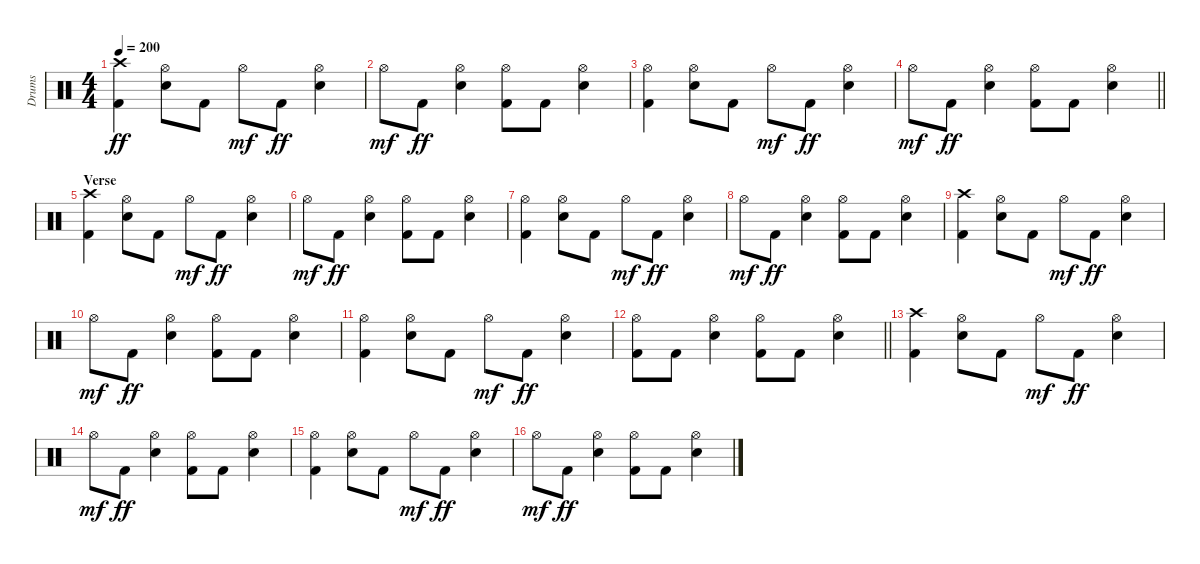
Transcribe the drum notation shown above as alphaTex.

\track ("Drums" "Drums") {instrument percussion}
\staff {score}
\articulation defaults
\ts (4 4)
\tempo 200
\clef neutral
\ks c
("Crash high (hit)" "Kick (hit) 2").4{dy ff} ("Hi-Hat (open)" "Electric Snare (hit)").8 "Kick (hit) 2".8 "Hi-Hat (open)".8{dy mf} "Kick (hit) 2".8{dy ff} ("Hi-Hat (open)" "Electric Snare (hit)").4 |
"Hi-Hat (open)".8{dy mf} "Kick (hit) 2".8{dy ff} ("Hi-Hat (open)" "Electric Snare (hit)").4 ("Hi-Hat (open)" "Kick (hit) 2").8 "Kick (hit) 2".8 ("Hi-Hat (open)" "Electric Snare (hit)").4 |
("Hi-Hat (open)" "Kick (hit) 2").4 ("Hi-Hat (open)" "Electric Snare (hit)").8 "Kick (hit) 2".8 "Hi-Hat (open)".8{dy mf} "Kick (hit) 2".8{dy ff} ("Hi-Hat (open)" "Electric Snare (hit)").4 |
\barLineRight lightlight "Hi-Hat (open)".8{dy mf} "Kick (hit) 2".8{dy ff}
("Hi-Hat (open)" "Electric Snare (hit)").4 ("Hi-Hat (open)" "Kick (hit) 2").8 "Kick (hit) 2".8 ("Hi-Hat (open)" "Electric Snare (hit)").4 |
\section ("" "Verse")
("Crash high (hit)" "Kick (hit) 2").4 ("Hi-Hat (open)" "Electric Snare (hit)").8 "Kick (hit) 2".8 "Hi-Hat (open)".8{dy mf} "Kick (hit) 2".8{dy ff} ("Hi-Hat (open)" "Electric Snare (hit)").4 |
"Hi-Hat (open)".8{dy mf} "Kick (hit) 2".8{dy ff} ("Hi-Hat (open)" "Electric Snare (hit)").4 ("Hi-Hat (open)" "Kick (hit) 2").8 "Kick (hit) 2".8 ("Hi-Hat (open)" "Electric Snare (hit)").4 |
("Hi-Hat (open)" "Kick (hit) 2").4 ("Hi-Hat (open)" "Electric Snare (hit)").8 "Kick (hit) 2".8 "Hi-Hat (open)".8{dy mf} "Kick (hit) 2".8{dy ff} ("Hi-Hat (open)" "Electric Snare (hit)").4 |
"Hi-Hat (open)".8{dy mf} "Kick (hit) 2".8{dy ff} ("Hi-Hat (open)" "Electric Snare (hit)").4 ("Hi-Hat (open)" "Kick (hit) 2").8 "Kick (hit) 2".8 ("Hi-Hat (open)" "Electric Snare (hit)").4 |
("Crash high (hit)" "Kick (hit) 2").4 ("Hi-Hat (open)" "Electric Snare (hit)").8 "Kick (hit) 2".8 "Hi-Hat (open)".8{dy mf} "Kick (hit) 2".8{dy ff} ("Hi-Hat (open)" "Electric Snare (hit)").4 |
"Hi-Hat (open)".8{dy mf} "Kick (hit) 2".8{dy ff} ("Hi-Hat (open)" "Electric Snare (hit)").4 ("Hi-Hat (open)" "Kick (hit) 2").8 "Kick (hit) 2".8 ("Hi-Hat (open)" "Electric Snare (hit)").4 |
("Hi-Hat (open)" "Kick (hit) 2").4 ("Hi-Hat (open)" "Electric Snare (hit)").8 "Kick (hit) 2".8 "Hi-Hat (open)".8{dy mf} "Kick (hit) 2".8{dy ff} ("Hi-Hat (open)" "Electric Snare (hit)").4 |
\barLineRight lightlight
("Hi-Hat (open)" "Kick (hit) 2").8 "Kick (hit) 2".8 ("Hi-Hat (open)" "Electric Snare (hit)").4 ("Hi-Hat (open)" "Kick (hit) 2").8 "Kick (hit) 2".8 ("Hi-Hat (open)" "Electric Snare (hit)").4 |
("Crash high (hit)" "Kick (hit) 2").4 ("Hi-Hat (open)" "Electric Snare (hit)").8 "Kick (hit) 2".8 "Hi-Hat (open)".8{dy mf} "Kick (hit) 2".8{dy ff} ("Hi-Hat (open)" "Electric Snare (hit)").4 |
"Hi-Hat (open)".8{dy mf} "Kick (hit) 2".8{dy ff} ("Hi-Hat (open)" "Electric Snare (hit)").4 ("Hi-Hat (open)" "Kick (hit) 2").8 "Kick (hit) 2".8 ("Hi-Hat (open)" "Electric Snare (hit)").4 |
("Hi-Hat (open)" "Kick (hit) 2").4 ("Hi-Hat (open)" "Electric Snare (hit)").8 "Kick (hit) 2".8 "Hi-Hat (open)".8{dy mf} "Kick (hit) 2".8{dy ff} ("Hi-Hat (open)" "Electric Snare (hit)").4 |
"Hi-Hat (open)".8{dy mf} "Kick (hit) 2".8{dy ff} ("Hi-Hat (open)" "Electric Snare (hit)").4 ("Hi-Hat (open)" "Kick (hit) 2").8 "Kick (hit) 2".8 ("Hi-Hat (open)" "Electric Snare (hit)").4
